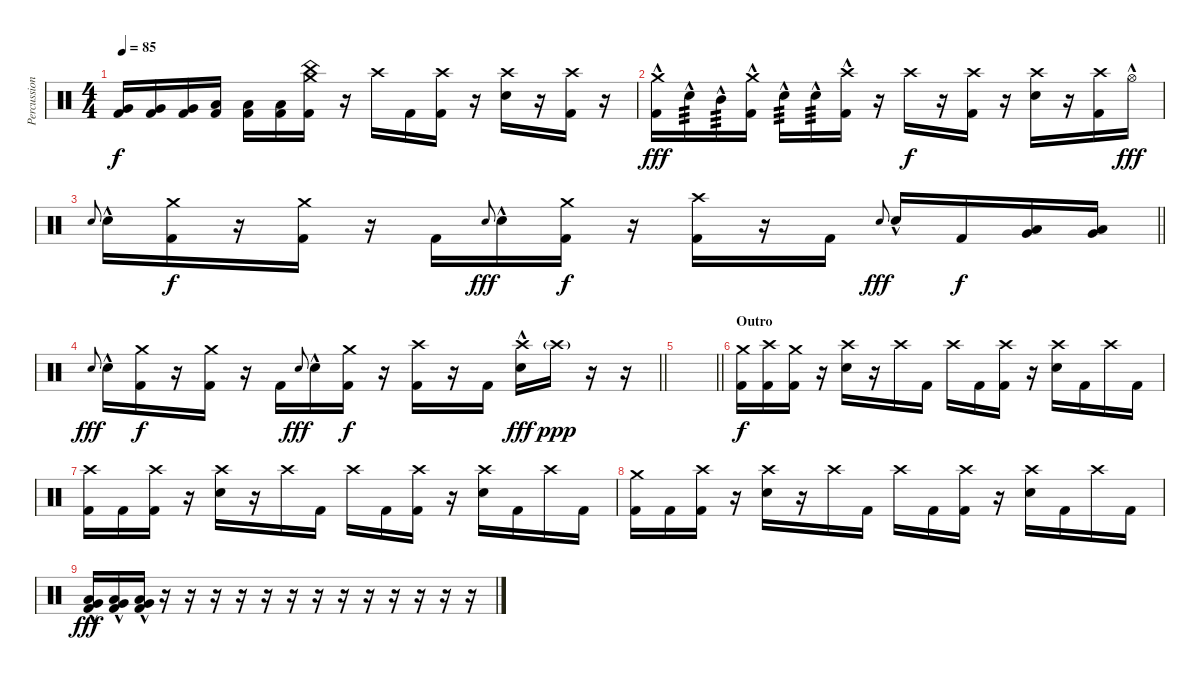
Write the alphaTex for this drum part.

\track ("Percussion" "Percussion") {instrument percussion}
\staff {score}
\articulation defaults
\ts (4 4)
\tempo 85
\clef neutral
\ks c
("Very Low Tom (hit)" "Kick (hit) 2").16{dy f} ("Very Low Tom (hit)" "Kick (hit) 2").16 ("Very Low Tom (hit)" "Kick (hit) 2").16 ("Low Floor Tom (hit)" "Kick (hit) 2").16 ("Low Floor Tom (hit)" "Kick (hit) 2").16 ("Low Floor Tom (hit)" "Kick (hit) 2").16 ("China (hit)" "Crash medium (hit)" "Kick (hit) 2").16 r.16 "Crash high (hit)".16 "Kick (hit) 2".16 ("Crash high (hit)" "Kick (hit) 2").16 r.16 ("Crash high (hit)" "Snare (hit) 2").16 r.16 ("Crash high (hit)" "Kick (hit) 2").16 r.16 |
("Crash medium (hit)"{hac} "Kick (hit) 2"{hac}).16{dy fff} "Snare (hit) 2"{hac}.16{tp 3} "Mid Tom (hit)"{hac}.16{tp 3} ("Crash medium (hit)"{hac} "Kick (hit) 2"{hac}).16 "Snare (hit) 2"{hac}.16{tp 3} "Snare (hit) 2"{hac}.16{tp 3} ("Crash high (hit)" "Kick (hit) 2"{hac}).16 r.16 "Crash high (hit)".16{dy f} r.16 ("Crash high (hit)" "Kick (hit) 2").16 r.16 ("Crash high (hit)" "Snare (hit) 2").16 r.16 ("Crash high (hit)" "Kick (hit) 2").16 "Hi-Hat (open)"{hac}.16{dy fff} |
\barLineRight lightlight "Snare (hit) 2".8{gr onbeat} "Snare (hit) 2"{hac}.16
("Crash medium (hit)" "Kick (hit) 2").16{dy f} r.16 ("Crash medium (hit)" "Kick (hit) 2").16 r.16 "Kick (hit) 2".16 "Snare (hit) 2".8{gr onbeat dy fff} "Snare (hit) 2"{hac}.16 ("Crash medium (hit)" "Kick (hit) 2").16{dy f} r.16 ("Crash high (hit)" "Kick (hit) 2").16 r.16 "Kick (hit) 2".16 "Snare (hit) 2".8{gr onbeat dy fff} "Snare (hit) 2"{hac}.16 "Kick (hit) 2".16{dy f} ("Very Low Tom (hit)" "Low Floor Tom (hit)").16 ("Very Low Tom (hit)" "Low Floor Tom (hit)").16 |
\barLineRight lightlight "Snare (hit) 2".8{gr onbeat dy fff} "Snare (hit) 2"{hac}.16
("Crash medium (hit)" "Kick (hit) 2").16{dy f} r.16 ("Crash medium (hit)" "Kick (hit) 2").16 r.16 "Kick (hit) 2".16 "Snare (hit) 2".8{gr onbeat dy fff} "Snare (hit) 2"{hac}.16 ("Crash medium (hit)" "Kick (hit) 2").16{dy f} r.16 ("Crash high (hit)" "Kick (hit) 2").16 r.16 "Kick (hit) 2".16 ("Crash high (hit)" "Snare (hit) 2"{hac}).16{dy fff} "Crash high (hit)"{g}.16{dy ppp} r.16 r.16 |
\barLineRight lightlight
|
\section ("" "Outro")
("Crash medium (hit)" "Kick (hit) 2").16{dy f} ("Crash high (hit)" "Kick (hit) 2").16 ("Crash medium (hit)" "Kick (hit) 2").16 r.16 ("Crash high (hit)" "Snare (hit) 2").16 r.16 "Crash high (hit)".16 "Kick (hit) 2".16 "Crash high (hit)".16 "Kick (hit) 2".16 ("Crash high (hit)" "Kick (hit) 2").16 r.16 ("Crash high (hit)" "Snare (hit) 2").16 "Kick (hit) 2".16 "Crash high (hit)".16 "Kick (hit) 2".16 |
("Crash high (hit)" "Kick (hit) 2").16 "Kick (hit) 2".16 ("Crash high (hit)" "Kick (hit) 2").16 r.16 ("Crash high (hit)" "Snare (hit) 2").16 r.16 "Crash high (hit)".16 "Kick (hit) 2".16 "Crash high (hit)".16 "Kick (hit) 2".16 ("Crash high (hit)" "Kick (hit) 2").16 r.16 ("Crash high (hit)" "Snare (hit) 2").16 "Kick (hit) 2".16 "Crash high (hit)".16 "Kick (hit) 2".16 |
("Crash medium (hit)" "Kick (hit) 2").16 "Kick (hit) 2".16 ("Crash high (hit)" "Kick (hit) 2").16 r.16 ("Crash high (hit)" "Snare (hit) 2").16 r.16 "Crash high (hit)".16 "Kick (hit) 2".16 "Crash high (hit)".16 "Kick (hit) 2".16 ("Crash high (hit)" "Kick (hit) 2").16 r.16 ("Crash high (hit)" "Snare (hit) 2").16 "Kick (hit) 2".16 "Crash high (hit)".16 "Kick (hit) 2".16 |
("Very Low Tom (hit)"{hac} "Low Floor Tom (hit)"{hac} "Kick (hit) 2"{hac}).16{dy fff} ("Very Low Tom (hit)"{hac} "Low Floor Tom (hit)"{hac} "Kick (hit) 2"{hac}).16 ("Very Low Tom (hit)"{hac} "Low Floor Tom (hit)"{hac} "Kick (hit) 2"{hac}).16 r.16 r.16 r.16 r.16 r.16 r.16 r.16 r.16 r.16 r.16 r.16 r.16 r.16
